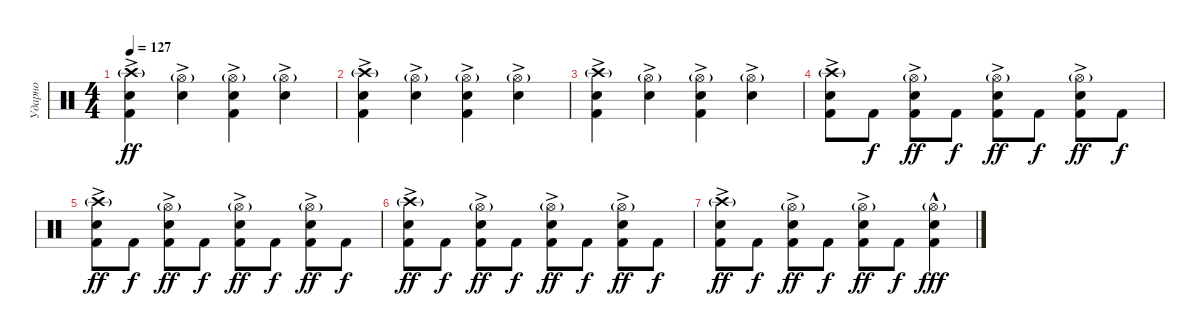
\track ("Ударно" "Ударно") {instrument percussion}
\staff {score}
\articulation defaults
\ts (4 4)
\tempo 127
\clef neutral
\ks c
("Crash high (hit)"{g} "Electric Snare (hit)"{ac} "Kick (hit) 2").4{dy ff} ("Hi-Hat (open)"{g} "Electric Snare (hit)"{ac}).4 ("Hi-Hat (open)"{g} "Electric Snare (hit)"{ac} "Kick (hit) 2").4 ("Hi-Hat (open)"{g} "Electric Snare (hit)"{ac}).4 |
("Crash high (hit)"{g} "Electric Snare (hit)"{ac} "Kick (hit) 2").4 ("Hi-Hat (open)"{g} "Electric Snare (hit)"{ac}).4 ("Hi-Hat (open)"{g} "Electric Snare (hit)"{ac} "Kick (hit) 2").4 ("Hi-Hat (open)"{g} "Electric Snare (hit)"{ac}).4 |
("Crash high (hit)"{g} "Electric Snare (hit)"{ac} "Kick (hit) 2").4 ("Hi-Hat (open)"{g} "Electric Snare (hit)"{ac}).4 ("Hi-Hat (open)"{g} "Electric Snare (hit)"{ac} "Kick (hit) 2").4 ("Hi-Hat (open)"{g} "Electric Snare (hit)"{ac}).4 |
("Crash high (hit)"{g} "Electric Snare (hit)"{ac} "Kick (hit) 2").8 "Kick (hit) 2".8{dy f} ("Hi-Hat (open)"{g} "Electric Snare (hit)"{ac} "Kick (hit) 2").8{dy ff} "Kick (hit) 2".8{dy f} ("Hi-Hat (open)"{g} "Electric Snare (hit)"{ac} "Kick (hit) 2").8{dy ff} "Kick (hit) 2".8{dy f} ("Hi-Hat (open)"{g} "Electric Snare (hit)"{ac} "Kick (hit) 2").8{dy ff} "Kick (hit) 2".8{dy f} |
("Crash high (hit)"{g} "Electric Snare (hit)"{ac} "Kick (hit) 2").8{dy ff} "Kick (hit) 2".8{dy f} ("Hi-Hat (open)"{g} "Electric Snare (hit)"{ac} "Kick (hit) 2").8{dy ff} "Kick (hit) 2".8{dy f} ("Hi-Hat (open)"{g} "Electric Snare (hit)"{ac} "Kick (hit) 2").8{dy ff} "Kick (hit) 2".8{dy f} ("Hi-Hat (open)"{g} "Electric Snare (hit)"{ac} "Kick (hit) 2").8{dy ff} "Kick (hit) 2".8{dy f} |
("Crash high (hit)"{g} "Electric Snare (hit)"{ac} "Kick (hit) 2").8{dy ff} "Kick (hit) 2".8{dy f} ("Hi-Hat (open)"{g} "Electric Snare (hit)"{ac} "Kick (hit) 2").8{dy ff} "Kick (hit) 2".8{dy f} ("Hi-Hat (open)"{g} "Electric Snare (hit)"{ac} "Kick (hit) 2").8{dy ff} "Kick (hit) 2".8{dy f} ("Hi-Hat (open)"{g} "Electric Snare (hit)"{ac} "Kick (hit) 2").8{dy ff} "Kick (hit) 2".8{dy f} |
("Crash high (hit)"{g} "Electric Snare (hit)"{ac} "Kick (hit) 2").8{dy ff} "Kick (hit) 2".8{dy f} ("Hi-Hat (open)"{g} "Electric Snare (hit)"{ac} "Kick (hit) 2").8{dy ff} "Kick (hit) 2".8{dy f} ("Hi-Hat (open)"{g} "Electric Snare (hit)"{ac} "Kick (hit) 2").8{dy ff} "Kick (hit) 2".8{dy f} ("Hi-Hat (open)"{g} "Electric Snare (hit)"{hac} "Kick (hit) 2").4{dy fff}
